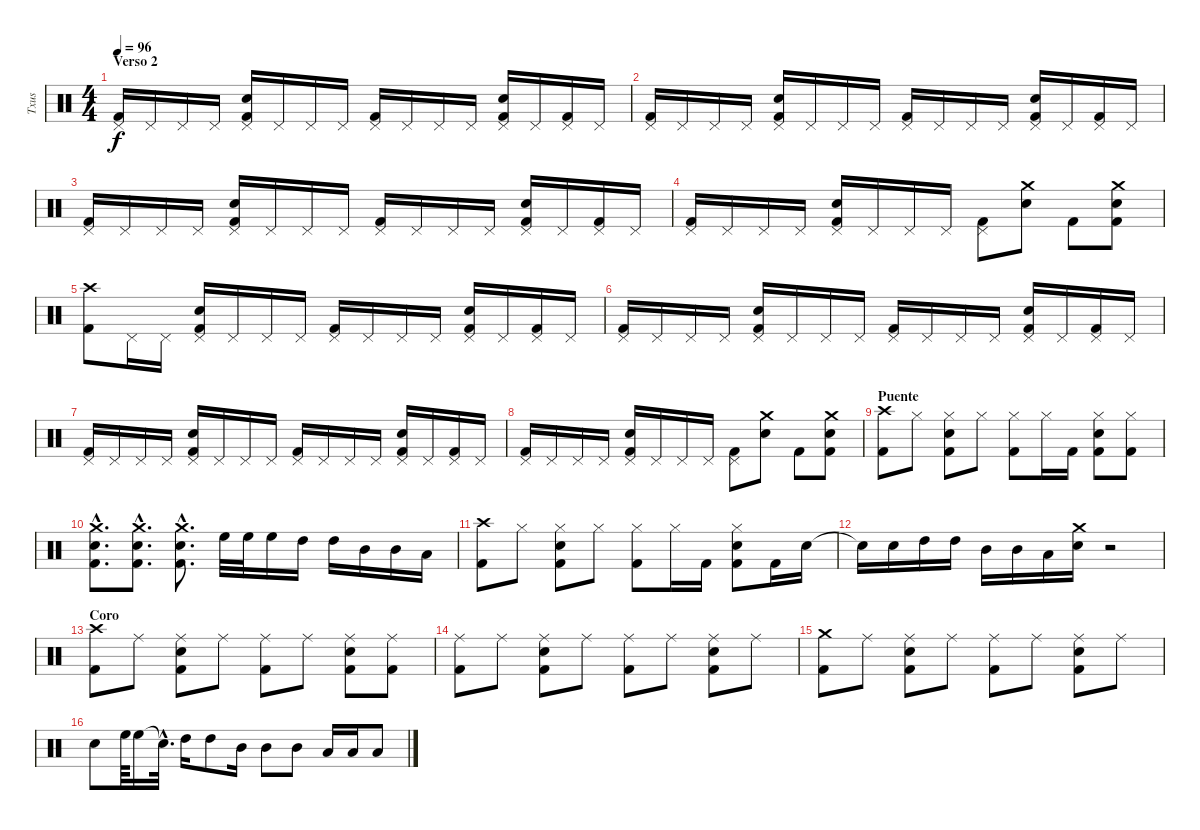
\track ("Txus" "Txus") {instrument percussion}
\staff {score}
\articulation defaults
\ts (4 4)
\section ("" "Verso 2")
\tempo 96
\clef neutral
\ks c
("Kick (hit) 2" "Pedal Hi-Hat (hit)").16{dy f} "Pedal Hi-Hat (hit)".16 "Pedal Hi-Hat (hit)".16 "Pedal Hi-Hat (hit)".16 ("Kick (hit) 2" "Electric Snare (hit)" "Pedal Hi-Hat (hit)").16 "Pedal Hi-Hat (hit)".16 "Pedal Hi-Hat (hit)".16 "Pedal Hi-Hat (hit)".16 ("Kick (hit) 2" "Pedal Hi-Hat (hit)").16 "Pedal Hi-Hat (hit)".16 "Pedal Hi-Hat (hit)".16 "Pedal Hi-Hat (hit)".16 ("Kick (hit) 2" "Electric Snare (hit)" "Pedal Hi-Hat (hit)").16 "Pedal Hi-Hat (hit)".16 ("Kick (hit) 2" "Pedal Hi-Hat (hit)").16 "Pedal Hi-Hat (hit)".16 |
("Kick (hit) 2" "Pedal Hi-Hat (hit)").16 "Pedal Hi-Hat (hit)".16 "Pedal Hi-Hat (hit)".16 "Pedal Hi-Hat (hit)".16 ("Kick (hit) 2" "Electric Snare (hit)" "Pedal Hi-Hat (hit)").16 "Pedal Hi-Hat (hit)".16 "Pedal Hi-Hat (hit)".16 "Pedal Hi-Hat (hit)".16 ("Kick (hit) 2" "Pedal Hi-Hat (hit)").16 "Pedal Hi-Hat (hit)".16 "Pedal Hi-Hat (hit)".16 "Pedal Hi-Hat (hit)".16 ("Kick (hit) 2" "Electric Snare (hit)" "Pedal Hi-Hat (hit)").16 "Pedal Hi-Hat (hit)".16 ("Kick (hit) 2" "Pedal Hi-Hat (hit)").16 "Pedal Hi-Hat (hit)".16 |
("Kick (hit) 2" "Pedal Hi-Hat (hit)").16 "Pedal Hi-Hat (hit)".16 "Pedal Hi-Hat (hit)".16 "Pedal Hi-Hat (hit)".16 ("Kick (hit) 2" "Electric Snare (hit)" "Pedal Hi-Hat (hit)").16 "Pedal Hi-Hat (hit)".16 "Pedal Hi-Hat (hit)".16 "Pedal Hi-Hat (hit)".16 ("Kick (hit) 2" "Pedal Hi-Hat (hit)").16 "Pedal Hi-Hat (hit)".16 "Pedal Hi-Hat (hit)".16 "Pedal Hi-Hat (hit)".16 ("Kick (hit) 2" "Electric Snare (hit)" "Pedal Hi-Hat (hit)").16 "Pedal Hi-Hat (hit)".16 ("Kick (hit) 2" "Pedal Hi-Hat (hit)").16 "Pedal Hi-Hat (hit)".16 |
("Kick (hit) 2" "Pedal Hi-Hat (hit)").16 "Pedal Hi-Hat (hit)".16 "Pedal Hi-Hat (hit)".16 "Pedal Hi-Hat (hit)".16 ("Kick (hit) 2" "Electric Snare (hit)" "Pedal Hi-Hat (hit)").16 "Pedal Hi-Hat (hit)".16 "Pedal Hi-Hat (hit)".16 "Pedal Hi-Hat (hit)".16 ("Kick (hit) 2" "Pedal Hi-Hat (hit)").8 ("Electric Snare (hit)" "Crash medium (hit)").8 "Kick (hit) 2".8 ("Kick (hit) 2" "Electric Snare (hit)" "Crash medium (hit)").8 |
("Kick (hit) 2" "Crash high (hit)").8 "Pedal Hi-Hat (hit)".16 "Pedal Hi-Hat (hit)".16 ("Kick (hit) 2" "Electric Snare (hit)" "Pedal Hi-Hat (hit)").16 "Pedal Hi-Hat (hit)".16 "Pedal Hi-Hat (hit)".16 "Pedal Hi-Hat (hit)".16 ("Kick (hit) 2" "Pedal Hi-Hat (hit)").16 "Pedal Hi-Hat (hit)".16 "Pedal Hi-Hat (hit)".16 "Pedal Hi-Hat (hit)".16 ("Kick (hit) 2" "Electric Snare (hit)" "Pedal Hi-Hat (hit)").16 "Pedal Hi-Hat (hit)".16 ("Kick (hit) 2" "Pedal Hi-Hat (hit)").16 "Pedal Hi-Hat (hit)".16 |
("Kick (hit) 2" "Pedal Hi-Hat (hit)").16 "Pedal Hi-Hat (hit)".16 "Pedal Hi-Hat (hit)".16 "Pedal Hi-Hat (hit)".16 ("Kick (hit) 2" "Electric Snare (hit)" "Pedal Hi-Hat (hit)").16 "Pedal Hi-Hat (hit)".16 "Pedal Hi-Hat (hit)".16 "Pedal Hi-Hat (hit)".16 ("Kick (hit) 2" "Pedal Hi-Hat (hit)").16 "Pedal Hi-Hat (hit)".16 "Pedal Hi-Hat (hit)".16 "Pedal Hi-Hat (hit)".16 ("Kick (hit) 2" "Electric Snare (hit)" "Pedal Hi-Hat (hit)").16 "Pedal Hi-Hat (hit)".16 ("Kick (hit) 2" "Pedal Hi-Hat (hit)").16 "Pedal Hi-Hat (hit)".16 |
("Kick (hit) 2" "Pedal Hi-Hat (hit)").16 "Pedal Hi-Hat (hit)".16 "Pedal Hi-Hat (hit)".16 "Pedal Hi-Hat (hit)".16 ("Kick (hit) 2" "Electric Snare (hit)" "Pedal Hi-Hat (hit)").16 "Pedal Hi-Hat (hit)".16 "Pedal Hi-Hat (hit)".16 "Pedal Hi-Hat (hit)".16 ("Kick (hit) 2" "Pedal Hi-Hat (hit)").16 "Pedal Hi-Hat (hit)".16 "Pedal Hi-Hat (hit)".16 "Pedal Hi-Hat (hit)".16 ("Kick (hit) 2" "Electric Snare (hit)" "Pedal Hi-Hat (hit)").16 "Pedal Hi-Hat (hit)".16 ("Kick (hit) 2" "Pedal Hi-Hat (hit)").16 "Pedal Hi-Hat (hit)".16 |
("Kick (hit) 2" "Pedal Hi-Hat (hit)").16 "Pedal Hi-Hat (hit)".16 "Pedal Hi-Hat (hit)".16 "Pedal Hi-Hat (hit)".16 ("Kick (hit) 2" "Electric Snare (hit)" "Pedal Hi-Hat (hit)").16 "Pedal Hi-Hat (hit)".16 "Pedal Hi-Hat (hit)".16 "Pedal Hi-Hat (hit)".16 ("Kick (hit) 2" "Pedal Hi-Hat (hit)").8 ("Electric Snare (hit)" "Crash medium (hit)").8 "Kick (hit) 2".8 ("Kick (hit) 2" "Electric Snare (hit)" "Crash medium (hit)").8 |
\section ("" "Puente")
("Kick (hit) 2" "Crash high (hit)").8 "Hi-Hat (closed)".8 ("Kick (hit) 2" "Electric Snare (hit)" "Hi-Hat (closed)").8 "Hi-Hat (closed)".8 ("Kick (hit) 2" "Hi-Hat (closed)").8 "Hi-Hat (closed)".16 "Kick (hit) 2".16 ("Kick (hit) 2" "Electric Snare (hit)" "Hi-Hat (closed)").8 ("Kick (hit) 2" "Hi-Hat (closed)").8 |
("Kick (hit) 2"{hac} "Electric Snare (hit)"{hac} "Crash medium (hit)"{hac}).8{d} ("Kick (hit) 2"{hac} "Electric Snare (hit)"{hac} "Crash medium (hit)"{hac}).8{d} ("Kick (hit) 2"{hac} "Electric Snare (hit)"{hac} "Crash medium (hit)"{hac}).8{d} "High Floor Tom (hit)".32 "High Floor Tom (hit)".32 "High Floor Tom (hit)".16 "High Tom (hit)".16 "High Tom (hit)".16 "Mid Tom (hit)".16 "Mid Tom (hit)".16 "Low Tom (hit)".16 |
("Kick (hit) 2" "Crash high (hit)").8 "Hi-Hat (closed)".8 ("Kick (hit) 2" "Electric Snare (hit)" "Hi-Hat (closed)").8 "Hi-Hat (closed)".8 ("Kick (hit) 2" "Hi-Hat (closed)").8 "Hi-Hat (closed)".16 "Kick (hit) 2".16 ("Kick (hit) 2" "Electric Snare (hit)" "Hi-Hat (closed)").8 "Kick (hit) 2".16 "Electric Snare (hit)".16 |
"Snare (hit)"{t}.16 "Electric Snare (hit)".16 "High Tom (hit)".16 "High Tom (hit)".16 "Mid Tom (hit)".16 "Mid Tom (hit)".16 "Low Tom (hit)".16 ("Electric Snare (hit)" "Crash medium (hit)").16 r.2 |
\section ("" "Coro")
("Kick (hit) 2" "Crash high (hit)").8 "Ride (middle)".8 ("Kick (hit) 2" "Electric Snare (hit)" "Ride (middle)").8 "Ride (middle)".8 ("Kick (hit) 2" "Ride (middle)").8 "Ride (middle)".8 ("Kick (hit) 2" "Electric Snare (hit)" "Ride (middle)").8 ("Kick (hit) 2" "Ride (middle)").8 |
("Kick (hit) 2" "Ride (middle)").8 "Ride (middle)".8 ("Kick (hit) 2" "Electric Snare (hit)" "Ride (middle)").8 "Ride (middle)".8 ("Kick (hit) 2" "Ride (middle)").8 "Ride (middle)".8 ("Kick (hit) 2" "Electric Snare (hit)" "Ride (middle)").8 "Ride (middle)".8 |
("Kick (hit) 2" "Crash medium (hit)").8 "Ride (middle)".8 ("Kick (hit) 2" "Electric Snare (hit)" "Ride (middle)").8 "Ride (middle)".8 ("Kick (hit) 2" "Ride (middle)").8 "Ride (middle)".8 ("Kick (hit) 2" "Electric Snare (hit)" "Ride (middle)").8 "Ride (middle)".8 |
"Electric Snare (hit)".8 "High Floor Tom (hit)".64 "High Floor Tom (hit)".16 "Snare (hit)"{hac t}.32{d} "High Tom (hit)".16 "High Tom (hit)".8 "Mid Tom (hit)".16 "Mid Tom (hit)".8 "Mid Tom (hit)".8 "Low Tom (hit)".16 "Low Tom (hit)".16 "Low Tom (hit)".8
